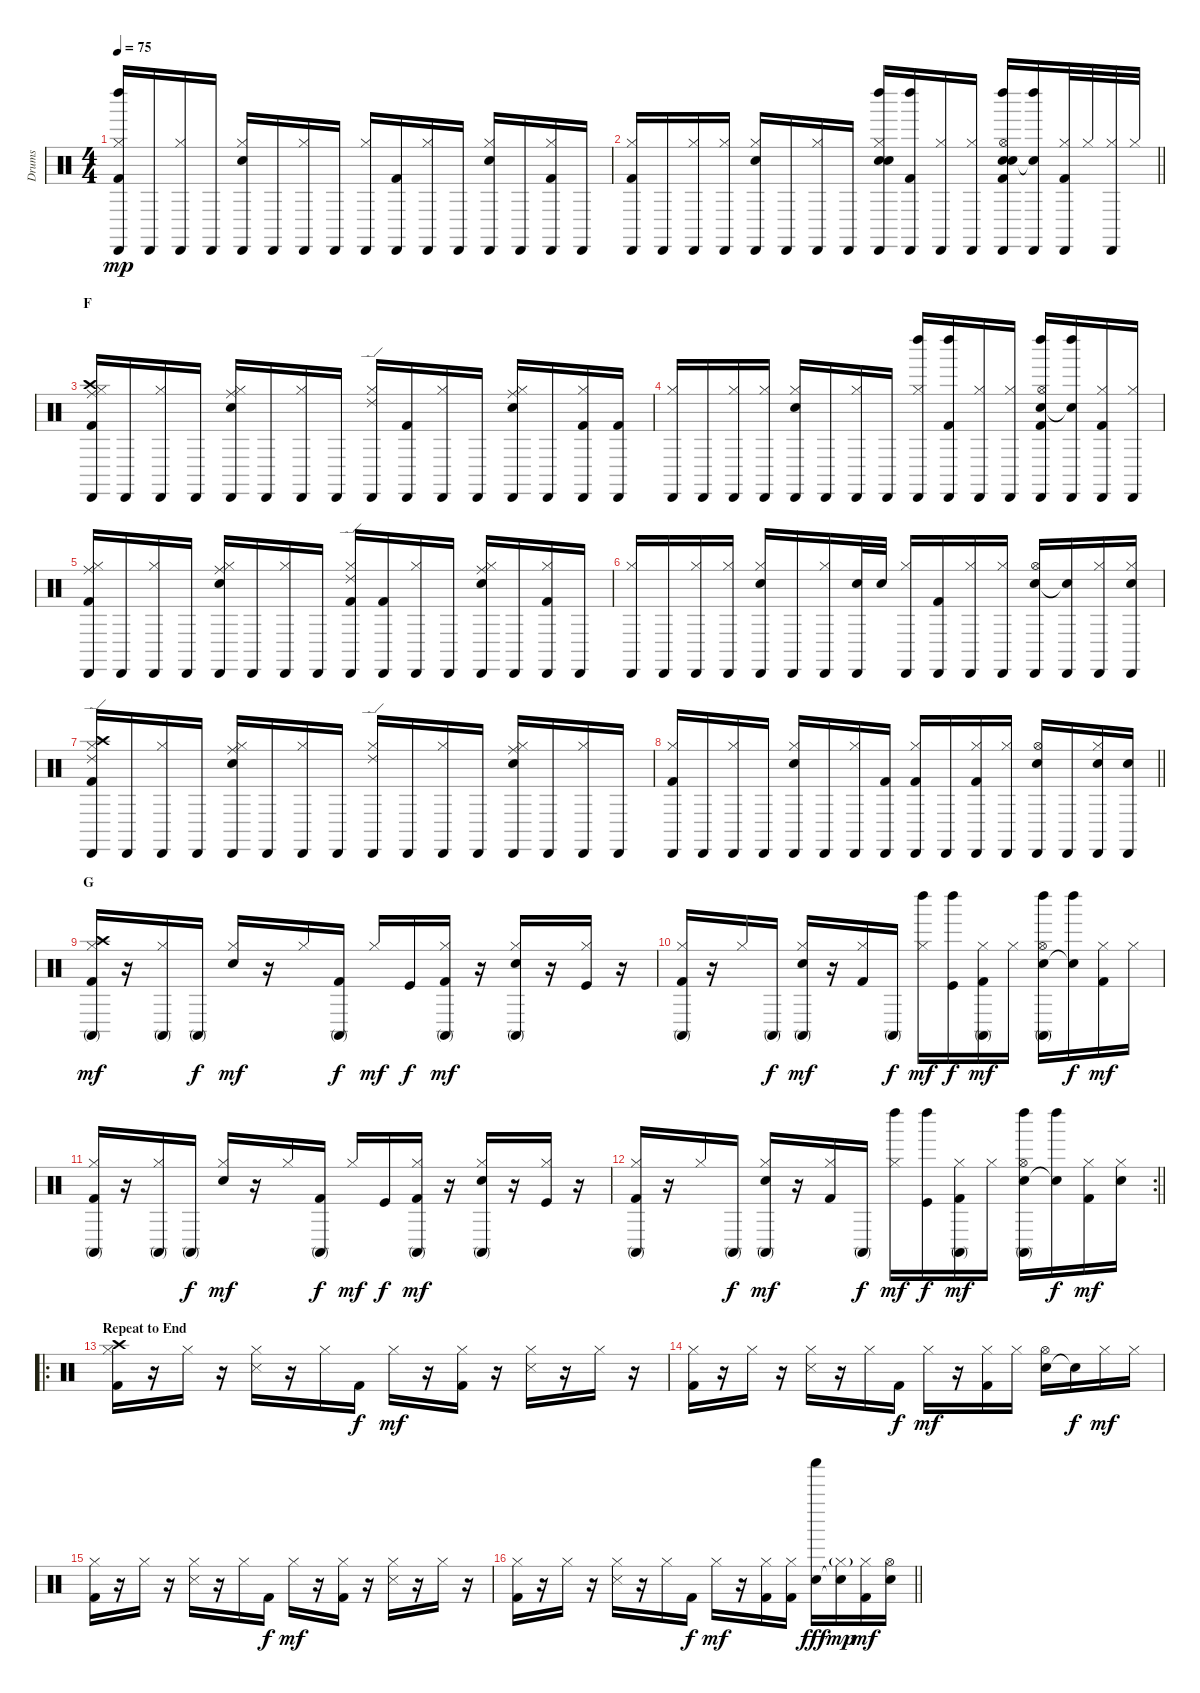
\track ("Drums" "Drums") {instrument percussion}
\staff {score}
\articulation defaults
\ts (4 4)
\tempo 75
\clef neutral
\ks c
("Left Maraca (hit)" "Kick (hit) 2" "Hi-Hat (closed)" "Cabasa (hit)").16{dy mp} "Cabasa (hit)".16 ("Hi-Hat (closed)" "Cabasa (hit)").16 "Cabasa (hit)".16 ("Electric Snare (hit)" "Hi-Hat (closed)" "Cabasa (hit)").16 "Cabasa (hit)".16 ("Hi-Hat (closed)" "Cabasa (hit)").16 "Cabasa (hit)".16 ("Hi-Hat (closed)" "Cabasa (hit)").16 ("Kick (hit) 2" "Cabasa (hit)").16 ("Hi-Hat (closed)" "Cabasa (hit)").16 "Cabasa (hit)".16 ("Electric Snare (hit)" "Hi-Hat (closed)" "Cabasa (hit)").16 "Cabasa (hit)".16 ("Kick (hit) 2" "Hi-Hat (closed)" "Cabasa (hit)").16 "Cabasa (hit)".16 |
\barLineRight lightlight
("Kick (hit) 2" "Hi-Hat (closed)" "Cabasa (hit)").16 "Cabasa (hit)".16 ("Hi-Hat (closed)" "Cabasa (hit)").16 ("Hi-Hat (closed)" "Cabasa (hit)").16 ("Electric Snare (hit)" "Hi-Hat (closed)" "Cabasa (hit)").16 "Cabasa (hit)".16 ("Hi-Hat (closed)" "Cabasa (hit)").16 "Cabasa (hit)".16 ("Left Maraca (hit)" "Snare (hit) 2" "Electric Snare (hit)" "Hi-Hat (closed)" "Cabasa (hit)").16 ("Left Maraca (hit)" "Kick (hit) 2" "Cabasa (hit)").16 ("Hi-Hat (closed)" "Cabasa (hit)").16 ("Hi-Hat (closed)" "Cabasa (hit)").16 ("Left Maraca (hit)" "Snare (hit) 2" "Electric Snare (hit)" "Kick (hit) 2" "Hi-Hat (open)" "Cabasa (hit)").16 ("Left Maraca (hit)" "Snare (hit)"{t} "Cabasa (hit)").16 ("Kick (hit) 2" "Hi-Hat (closed)" "Cabasa (hit)").32 "Hi-Hat (closed)".32 ("Hi-Hat (closed)" "Cabasa (hit)").32 "Hi-Hat (closed)".32 |
\section ("" "F")
("Ride (middle)" "Crash high (hit)" "Kick (hit) 2" "Hi-Hat (closed)" "Cabasa (hit)").16 "Cabasa (hit)".16 ("Hi-Hat (closed)" "Cabasa (hit)").16 "Cabasa (hit)".16 ("Ride (middle)" "Electric Snare (hit)" "Hi-Hat (closed)" "Cabasa (hit)").16 "Cabasa (hit)".16 ("Hi-Hat (closed)" "Cabasa (hit)").16 "Cabasa (hit)".16 ("Ride (edge) 2" "Hi-Hat (closed)" "Cabasa (hit)").16 ("Kick (hit) 2" "Cabasa (hit)").16 ("Hi-Hat (closed)" "Cabasa (hit)").16 "Cabasa (hit)".16 ("Ride (middle)" "Electric Snare (hit)" "Hi-Hat (closed)" "Cabasa (hit)").16 "Cabasa (hit)".16 ("Kick (hit) 2" "Hi-Hat (closed)" "Cabasa (hit)").16 ("Kick (hit) 2" "Cabasa (hit)").16 |
("Hi-Hat (closed)" "Cabasa (hit)").16 "Cabasa (hit)".16 ("Hi-Hat (closed)" "Cabasa (hit)").16 ("Hi-Hat (closed)" "Cabasa (hit)").16 ("Electric Snare (hit)" "Hi-Hat (closed)" "Cabasa (hit)").16 "Cabasa (hit)".16 ("Hi-Hat (closed)" "Cabasa (hit)").16 "Cabasa (hit)".16 ("Left Maraca (hit)" "Hi-Hat (closed)" "Cabasa (hit)").16 ("Left Maraca (hit)" "Kick (hit) 2" "Cabasa (hit)").16 ("Hi-Hat (closed)" "Cabasa (hit)").16 ("Hi-Hat (closed)" "Cabasa (hit)").16 ("Left Maraca (hit)" "Electric Snare (hit)" "Kick (hit) 2" "Hi-Hat (open)" "Cabasa (hit)").16 ("Left Maraca (hit)" "Snare (hit)"{t} "Cabasa (hit)").16 ("Kick (hit) 2" "Hi-Hat (closed)" "Cabasa (hit)").16 ("Hi-Hat (closed)" "Cabasa (hit)").16 |
("Ride (middle)" "Kick (hit) 2" "Hi-Hat (closed)" "Cabasa (hit)").16 "Cabasa (hit)".16 ("Hi-Hat (closed)" "Cabasa (hit)").16 "Cabasa (hit)".16 ("Ride (middle)" "Electric Snare (hit)" "Hi-Hat (closed)" "Cabasa (hit)").16 "Cabasa (hit)".16 ("Hi-Hat (closed)" "Cabasa (hit)").16 "Cabasa (hit)".16 ("Ride (edge) 2" "Kick (hit) 2" "Hi-Hat (closed)" "Cabasa (hit)").16 ("Kick (hit) 2" "Cabasa (hit)").16 ("Hi-Hat (closed)" "Cabasa (hit)").16 "Cabasa (hit)".16 ("Ride (middle)" "Electric Snare (hit)" "Hi-Hat (closed)" "Cabasa (hit)").16 "Cabasa (hit)".16 ("Kick (hit) 2" "Hi-Hat (closed)" "Cabasa (hit)").16 "Cabasa (hit)".16 |
("Hi-Hat (closed)" "Cabasa (hit)").16 "Cabasa (hit)".16 ("Hi-Hat (closed)" "Cabasa (hit)").16 ("Hi-Hat (closed)" "Cabasa (hit)").16 ("Electric Snare (hit)" "Hi-Hat (closed)" "Cabasa (hit)").16 "Cabasa (hit)".16 ("Hi-Hat (closed)" "Cabasa (hit)").16 ("Electric Snare (hit)" "Cabasa (hit)").32 "Electric Snare (hit)".32 ("Hi-Hat (closed)" "Cabasa (hit)").16 ("Kick (hit) 2" "Cabasa (hit)").16 ("Hi-Hat (closed)" "Cabasa (hit)").16 ("Hi-Hat (closed)" "Cabasa (hit)").16 ("Electric Snare (hit)" "Hi-Hat (open)" "Cabasa (hit)").16 ("Snare (hit)"{t} "Cabasa (hit)").16 ("Hi-Hat (closed)" "Cabasa (hit)").16 ("Electric Snare (hit)" "Hi-Hat (closed)" "Cabasa (hit)").16 |
("Ride (edge) 2" "Crash high (hit)" "Kick (hit) 2" "Hi-Hat (closed)" "Cabasa (hit)").16 "Cabasa (hit)".16 ("Hi-Hat (closed)" "Cabasa (hit)").16 "Cabasa (hit)".16 ("Ride (middle)" "Electric Snare (hit)" "Hi-Hat (closed)" "Cabasa (hit)").16 "Cabasa (hit)".16 ("Hi-Hat (closed)" "Cabasa (hit)").16 "Cabasa (hit)".16 ("Ride (edge) 2" "Hi-Hat (closed)" "Cabasa (hit)").16 "Cabasa (hit)".16 ("Hi-Hat (closed)" "Cabasa (hit)").16 "Cabasa (hit)".16 ("Ride (middle)" "Electric Snare (hit)" "Hi-Hat (closed)" "Cabasa (hit)").16 "Cabasa (hit)".16 ("Hi-Hat (closed)" "Cabasa (hit)").16 "Cabasa (hit)".16 |
\barLineRight lightlight
("Kick (hit) 2" "Hi-Hat (closed)" "Cabasa (hit)").16 "Cabasa (hit)".16 ("Hi-Hat (closed)" "Cabasa (hit)").16 "Cabasa (hit)".16 ("Electric Snare (hit)" "Hi-Hat (closed)" "Cabasa (hit)").16 "Cabasa (hit)".16 ("Hi-Hat (closed)" "Cabasa (hit)").16 ("Kick (hit) 2" "Cabasa (hit)").16 ("Kick (hit) 2" "Hi-Hat (closed)" "Cabasa (hit)").16 "Cabasa (hit)".16 ("Kick (hit) 2" "Hi-Hat (closed)" "Cabasa (hit)").16 ("Hi-Hat (closed)" "Cabasa (hit)").16 ("Electric Snare (hit)" "Hi-Hat (open)" "Cabasa (hit)").16 "Cabasa (hit)".16 ("Electric Snare (hit)" "Hi-Hat (closed)" "Cabasa (hit)").16 ("Electric Snare (hit)" "Cabasa (hit)").16 |
\section ("" "G")
("Crash high (hit)" "Kick (hit) 2" "Hi-Hat (closed)" "Conga high (mute)").16{dy mf} r.16 ("Hi-Hat (closed)" "Conga high (mute)").16 "Conga high (mute)".16{dy f} ("Electric Snare (hit)" "Hi-Hat (closed)").16{dy mf} r.16 "Hi-Hat (closed)".16 ("Kick (hit) 2" "Conga high (mute)").16{dy f} "Hi-Hat (closed)".16{dy mf} "Kick (hit)".16{dy f} ("Kick (hit) 2" "Hi-Hat (closed)" "Conga high (mute)").16{dy mf} r.16 ("Electric Snare (hit)" "Hi-Hat (closed)" "Conga high (mute)").16 r.16 ("Kick (hit)" "Hi-Hat (closed)").16 r.16 |
("Kick (hit) 2" "Hi-Hat (closed)" "Conga high (mute)").16 r.16 "Hi-Hat (closed)".16 "Conga high (mute)".16{dy f} ("Electric Snare (hit)" "Hi-Hat (closed)" "Conga high (mute)").16{dy mf} r.16 ("Kick (hit) 2" "Hi-Hat (closed)").16 "Conga high (mute)".16{dy f} ("Left Maraca (hit)" "Hi-Hat (closed)").16{dy mf} ("Left Maraca (hit)" "Kick (hit)").16{dy f} ("Kick (hit) 2" "Hi-Hat (closed)" "Conga high (mute)").16{dy mf} "Hi-Hat (closed)".16 ("Left Maraca (hit)" "Electric Snare (hit)" "Hi-Hat (open)" "Conga high (mute)").16 ("Left Maraca (hit)" "Snare (hit)"{t}).16{dy f} ("Kick (hit) 2" "Hi-Hat (closed)").16{dy mf} "Hi-Hat (closed)".16 |
("Kick (hit) 2" "Hi-Hat (closed)" "Conga high (mute)").16 r.16 ("Hi-Hat (closed)" "Conga high (mute)").16 "Conga high (mute)".16{dy f} ("Electric Snare (hit)" "Hi-Hat (closed)").16{dy mf} r.16 "Hi-Hat (closed)".16 ("Kick (hit) 2" "Conga high (mute)").16{dy f} "Hi-Hat (closed)".16{dy mf} "Kick (hit)".16{dy f} ("Kick (hit) 2" "Hi-Hat (closed)" "Conga high (mute)").16{dy mf} r.16 ("Electric Snare (hit)" "Hi-Hat (closed)" "Conga high (mute)").16 r.16 ("Kick (hit)" "Hi-Hat (closed)").16 r.16 |
\rc 2
\barLineRight lightlight
("Kick (hit) 2" "Hi-Hat (closed)" "Conga high (mute)").16 r.16 "Hi-Hat (closed)".16 "Conga high (mute)".16{dy f} ("Electric Snare (hit)" "Hi-Hat (closed)" "Conga high (mute)").16{dy mf} r.16 ("Kick (hit) 2" "Hi-Hat (closed)").16 "Conga high (mute)".16{dy f} ("Left Maraca (hit)" "Hi-Hat (closed)").16{dy mf} ("Left Maraca (hit)" "Kick (hit)").16{dy f} ("Kick (hit) 2" "Hi-Hat (closed)" "Conga high (mute)").16{dy mf} "Hi-Hat (closed)".16 ("Left Maraca (hit)" "Electric Snare (hit)" "Hi-Hat (open)" "Conga high (mute)").16 ("Left Maraca (hit)" "Snare (hit)"{t}).16{dy f} ("Kick (hit) 2" "Hi-Hat (closed)").16{dy mf} ("Electric Snare (hit)" "Hi-Hat (closed)").16 |
\ro
\section ("" "Repeat to End")
("Crash high (hit)" "Kick (hit) 2" "Hi-Hat (closed)").16 r.16 "Hi-Hat (closed)".16 r.16 ("Snare (side stick) 3" "Hi-Hat (closed)").16 r.16 "Hi-Hat (closed)".16 "Kick (hit) 2".16{dy f} "Hi-Hat (closed)".16{dy mf} r.16 ("Kick (hit) 2" "Hi-Hat (closed)").16 r.16 ("Snare (side stick) 3" "Hi-Hat (closed)").16 r.16 "Hi-Hat (closed)".16 r.16 |
("Kick (hit) 2" "Hi-Hat (closed)").16 r.16 "Hi-Hat (closed)".16 r.16 ("Snare (side stick) 3" "Hi-Hat (closed)").16 r.16 "Hi-Hat (closed)".16 "Kick (hit) 2".16{dy f} "Hi-Hat (closed)".16{dy mf} r.16 ("Kick (hit) 2" "Hi-Hat (closed)").16 "Hi-Hat (closed)".16 ("Electric Snare (hit)" "Hi-Hat (open)").16 "Snare (hit)"{t}.16{dy f} "Hi-Hat (closed)".16{dy mf} "Hi-Hat (closed)".16 |
("Kick (hit) 2" "Hi-Hat (closed)").16 r.16 "Hi-Hat (closed)".16 r.16 ("Snare (side stick) 3" "Hi-Hat (closed)").16 r.16 "Hi-Hat (closed)".16 "Kick (hit) 2".16{dy f} "Hi-Hat (closed)".16{dy mf} r.16 ("Kick (hit) 2" "Hi-Hat (closed)").16 r.16 ("Snare (side stick) 3" "Hi-Hat (closed)").16 r.16 "Hi-Hat (closed)".16 r.16 |
\barLineRight lightlight
("Kick (hit) 2" "Hi-Hat (closed)").16 r.16 "Hi-Hat (closed)".16 r.16 ("Snare (side stick) 3" "Hi-Hat (closed)").16 r.16 "Hi-Hat (closed)".16 "Kick (hit) 2".16{dy f} "Hi-Hat (closed)".16{dy mf} r.16 ("Kick (hit) 2" "Hi-Hat (closed)").16 ("Kick (hit) 2" "Hi-Hat (closed)").16 ("Electric Snare (hit)" "Shaker (hit)").16{dy fff} ("Snare (hit)"{t} "Hi-Hat (closed)"{g}).16{dy mp} ("Kick (hit) 2" "Hi-Hat (closed)").16{dy mf} ("Electric Snare (hit)" "Hi-Hat (open)").16
